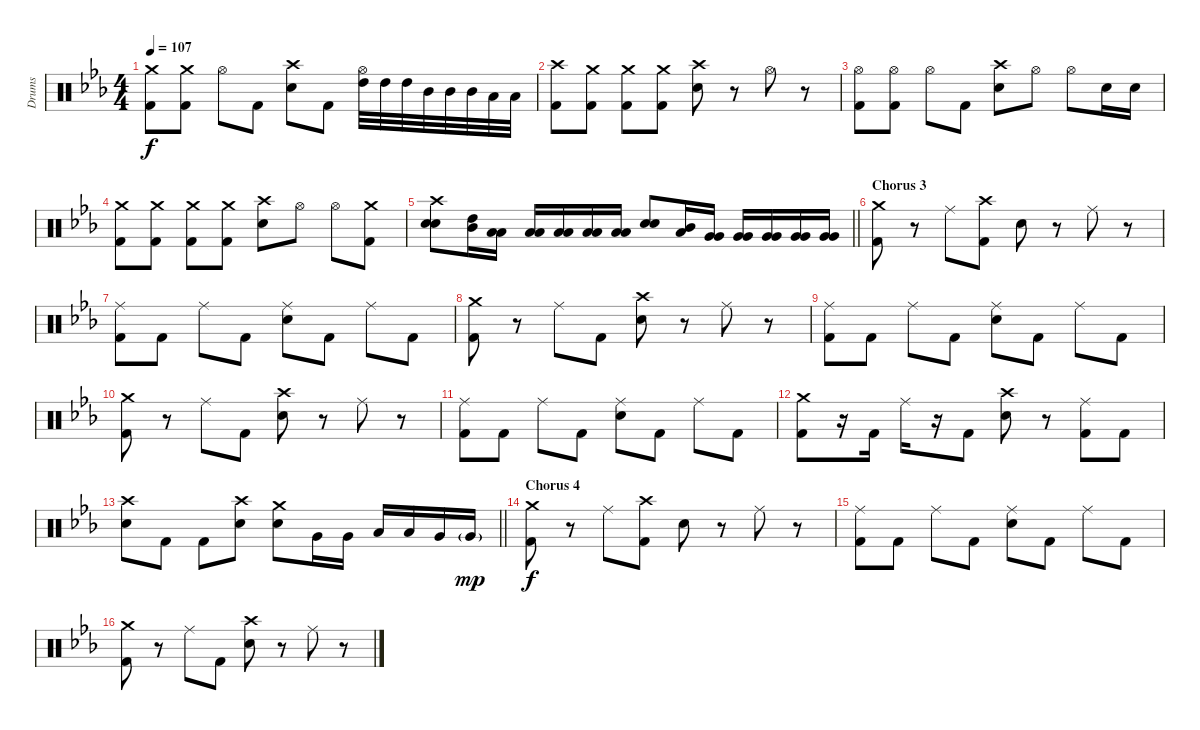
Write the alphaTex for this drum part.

\track ("Drums" "Drums") {instrument percussion}
\staff {score}
\articulation defaults
\ts (4 4)
\tempo 107
\clef neutral
\ks cminor
("Crash medium (hit)" "Kick (hit) 2").8{dy f} ("Crash medium (hit)" "Kick (hit) 2").8 "Hi-Hat (open)".8 "Kick (hit) 2".8 ("Crash high (hit)" "Electric Snare (hit)").8 "Kick (hit) 2".8 ("Hi-Hat (open)" "High Tom (hit)").32 "High Tom (hit)".32 "High Tom (hit)".32 "Mid Tom (hit)".32 "Mid Tom (hit)".32 "Mid Tom (hit)".32 "Low Tom (hit)".32 "Low Tom (hit)".32 |
("Crash high (hit)" "Kick (hit) 2").8 ("Crash medium (hit)" "Kick (hit) 2").8 ("Crash medium (hit)" "Kick (hit) 2").8 ("Crash medium (hit)" "Kick (hit) 2").8 ("Crash high (hit)" "Electric Snare (hit)").8 r.8 "Hi-Hat (open)".8 r.8 |
("Hi-Hat (open)" "Kick (hit) 2").8 ("Hi-Hat (open)" "Kick (hit) 2").8 "Hi-Hat (open)".8 "Kick (hit) 2".8 ("Crash high (hit)" "Electric Snare (hit)").8 "Hi-Hat (open)".8 "Hi-Hat (open)".8 "Electric Snare (hit)".16 "Electric Snare (hit)".16 |
("Crash medium (hit)" "Kick (hit) 2").8 ("Crash medium (hit)" "Kick (hit) 2").8 ("Crash medium (hit)" "Kick (hit) 2").8 ("Crash medium (hit)" "Kick (hit) 2").8 ("Crash high (hit)" "Electric Snare (hit)").8 "Hi-Hat (open)".8 "Hi-Hat (open)".8 ("Crash medium (hit)" "Kick (hit) 2").8 |
\barLineRight lightlight
("Crash high (hit)" "Electric Snare (hit)" "Electric Snare (hit)").8 ("High Tom (hit)" "Mid Tom (hit)").16 ("Low Tom (hit)" "Low Tom (hit)").16 ("Low Tom (hit)" "Low Tom (hit)").16 ("Low Tom (hit)" "Low Tom (hit)").16 ("Low Tom (hit)" "Low Tom (hit)").16 ("Low Tom (hit)" "Low Tom (hit)").16 ("Electric Snare (hit)" "Electric Snare (hit)").8 ("Mid Tom (hit)" "Low Tom (hit)").16 ("Very Low Tom (hit)" "Very Low Tom (hit)").16 ("Very Low Tom (hit)" "Very Low Tom (hit)").16 ("Very Low Tom (hit)" "Very Low Tom (hit)").16 ("Very Low Tom (hit)" "Very Low Tom (hit)").16 ("Very Low Tom (hit)" "Very Low Tom (hit)").16 |
\section ("" "Chorus 3")
("Crash medium (hit)" "Kick (hit) 2").8 r.8 "Ride (middle)".8 ("Crash high (hit)" "Kick (hit) 2").8 "Electric Snare (hit)".8 r.8 "Ride (middle)".8 r.8 |
("Ride (middle)" "Kick (hit) 2").8 "Kick (hit) 2".8 "Ride (middle)".8 "Kick (hit) 2".8 ("Ride (middle)" "Electric Snare (hit)").8 "Kick (hit) 2".8 "Ride (middle)".8 "Kick (hit) 2".8 |
("Crash medium (hit)" "Kick (hit) 2").8 r.8 "Ride (middle)".8 "Kick (hit) 2".8 ("Crash high (hit)" "Electric Snare (hit)").8 r.8 "Ride (middle)".8 r.8 |
("Ride (middle)" "Kick (hit) 2").8 "Kick (hit) 2".8 "Ride (middle)".8 "Kick (hit) 2".8 ("Ride (middle)" "Electric Snare (hit)").8 "Kick (hit) 2".8 "Ride (middle)".8 "Kick (hit) 2".8 |
("Crash medium (hit)" "Kick (hit) 2").8 r.8 "Ride (middle)".8 "Kick (hit) 2".8 ("Crash high (hit)" "Electric Snare (hit)").8 r.8 "Ride (middle)".8 r.8 |
("Ride (middle)" "Kick (hit) 2").8 "Kick (hit) 2".8 "Ride (middle)".8 "Kick (hit) 2".8 ("Ride (middle)" "Electric Snare (hit)").8 "Kick (hit) 2".8 "Ride (middle)".8 "Kick (hit) 2".8 |
("Crash medium (hit)" "Kick (hit) 2").8 r.16 "Kick (hit) 2".16 "Ride (middle)".16 r.16 "Kick (hit) 2".8 ("Crash high (hit)" "Electric Snare (hit)").8 r.8 ("Ride (middle)" "Kick (hit) 2").8 "Kick (hit) 2".8 |
\barLineRight lightlight
("Crash high (hit)" "Electric Snare (hit)").8 "Kick (hit) 2".8 "Kick (hit) 2".8 ("Crash high (hit)" "Electric Snare (hit)").8 ("Crash medium (hit)" "Electric Snare (hit)").8 "Very Low Tom (hit)".16 "Very Low Tom (hit)".16 "Low Tom (hit)".16 "Low Tom (hit)".16 "Very Low Tom (hit)".16 "Very Low Tom (hit)"{g}.16{dy mp} |
\section ("" "Chorus 4")
("Crash medium (hit)" "Kick (hit) 2").8{dy f} r.8 "Ride (middle)".8 ("Crash high (hit)" "Kick (hit) 2").8 "Electric Snare (hit)".8 r.8 "Ride (middle)".8 r.8 |
("Ride (middle)" "Kick (hit) 2").8 "Kick (hit) 2".8 "Ride (middle)".8 "Kick (hit) 2".8 ("Ride (middle)" "Electric Snare (hit)").8 "Kick (hit) 2".8 "Ride (middle)".8 "Kick (hit) 2".8 |
("Crash medium (hit)" "Kick (hit) 2").8 r.8 "Ride (middle)".8 "Kick (hit) 2".8 ("Crash high (hit)" "Electric Snare (hit)").8 r.8 "Ride (middle)".8 r.8
